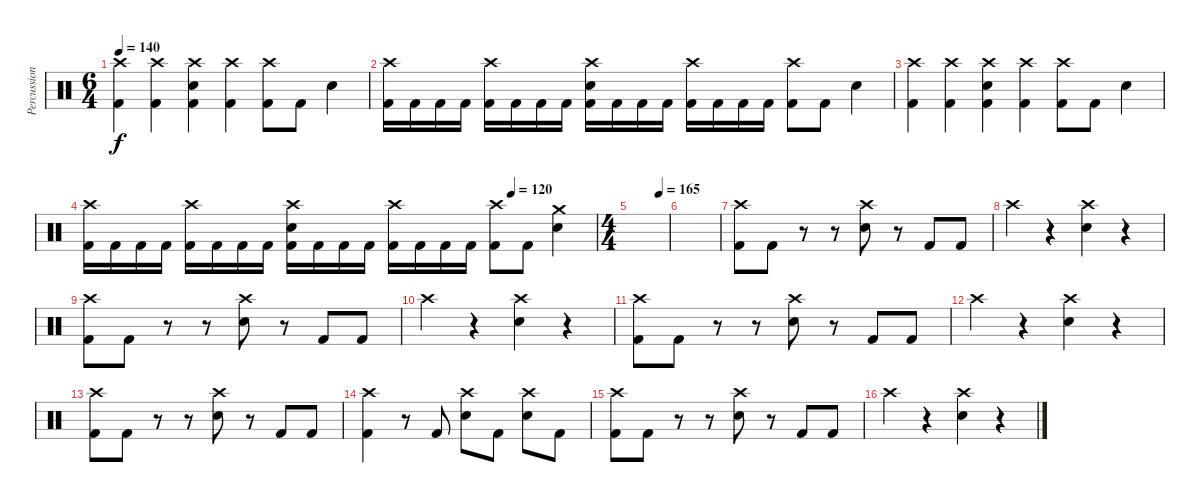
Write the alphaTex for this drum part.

\track ("Percussion" "Percussion") {instrument percussion}
\staff {score}
\articulation defaults
\ts (6 4)
\tempo 140
\clef neutral
\ks c
("Crash high (hit)" "Kick (hit) 2").4{dy f} ("Crash high (hit)" "Kick (hit) 2").4 ("Crash high (hit)" "Electric Snare (hit)" "Kick (hit) 2").4 ("Crash high (hit)" "Kick (hit) 2").4 ("Crash high (hit)" "Kick (hit) 2").8 "Kick (hit) 2".8 "Electric Snare (hit)".4 |
("Crash high (hit)" "Kick (hit) 2").16 "Kick (hit) 2".16 "Kick (hit) 2".16 "Kick (hit) 2".16 ("Crash high (hit)" "Kick (hit) 2").16 "Kick (hit) 2".16 "Kick (hit) 2".16 "Kick (hit) 2".16 ("Crash high (hit)" "Electric Snare (hit)" "Kick (hit) 2").16 "Kick (hit) 2".16 "Kick (hit) 2".16 "Kick (hit) 2".16 ("Crash high (hit)" "Kick (hit) 2").16 "Kick (hit) 2".16 "Kick (hit) 2".16 "Kick (hit) 2".16 ("Crash high (hit)" "Kick (hit) 2").8 "Kick (hit) 2".8 "Electric Snare (hit)".4 |
("Crash high (hit)" "Kick (hit) 2").4 ("Crash high (hit)" "Kick (hit) 2").4 ("Crash high (hit)" "Electric Snare (hit)" "Kick (hit) 2").4 ("Crash high (hit)" "Kick (hit) 2").4 ("Crash high (hit)" "Kick (hit) 2").8 "Kick (hit) 2".8 "Electric Snare (hit)".4 |
\tempo (120 0.8333333333333334)
("Crash high (hit)" "Kick (hit) 2").16 "Kick (hit) 2".16 "Kick (hit) 2".16 "Kick (hit) 2".16 ("Crash high (hit)" "Kick (hit) 2").16 "Kick (hit) 2".16 "Kick (hit) 2".16 "Kick (hit) 2".16 ("Crash high (hit)" "Electric Snare (hit)" "Kick (hit) 2").16 "Kick (hit) 2".16 "Kick (hit) 2".16 "Kick (hit) 2".16 ("Crash high (hit)" "Kick (hit) 2").16 "Kick (hit) 2".16 "Kick (hit) 2".16 "Kick (hit) 2".16 ("Crash high (hit)" "Kick (hit) 2").8 "Kick (hit) 2".8 ("Crash medium (hit)" "Electric Snare (hit)").4 |
\ts (4 4)
\tempo (165 0.75)
|
|
("Crash high (hit)" "Kick (hit) 2").8 "Kick (hit) 2".8 r.8 r.8 ("Crash high (hit)" "Electric Snare (hit)").8 r.8 "Kick (hit) 2".8 "Kick (hit) 2".8 |
"Crash high (hit)".4 r.4 ("Crash high (hit)" "Electric Snare (hit)").4 r.4 |
("Crash high (hit)" "Kick (hit) 2").8 "Kick (hit) 2".8 r.8 r.8 ("Crash high (hit)" "Electric Snare (hit)").8 r.8 "Kick (hit) 2".8 "Kick (hit) 2".8 |
"Crash high (hit)".4 r.4 ("Crash high (hit)" "Electric Snare (hit)").4 r.4 |
("Crash high (hit)" "Kick (hit) 2").8 "Kick (hit) 2".8 r.8 r.8 ("Crash high (hit)" "Electric Snare (hit)").8 r.8 "Kick (hit) 2".8 "Kick (hit) 2".8 |
"Crash high (hit)".4 r.4 ("Crash high (hit)" "Electric Snare (hit)").4 r.4 |
("Crash high (hit)" "Kick (hit) 2").8 "Kick (hit) 2".8 r.8 r.8 ("Crash high (hit)" "Electric Snare (hit)").8 r.8 "Kick (hit) 2".8 "Kick (hit) 2".8 |
("Crash high (hit)" "Kick (hit) 2").4 r.8 "Kick (hit) 2".8 ("Crash high (hit)" "Electric Snare (hit)").8 "Kick (hit) 2".8 ("Crash high (hit)" "Electric Snare (hit)").8 "Kick (hit) 2".8 |
("Crash high (hit)" "Kick (hit) 2").8 "Kick (hit) 2".8 r.8 r.8 ("Crash high (hit)" "Electric Snare (hit)").8 r.8 "Kick (hit) 2".8 "Kick (hit) 2".8 |
"Crash high (hit)".4 r.4 ("Crash high (hit)" "Electric Snare (hit)").4 r.4
